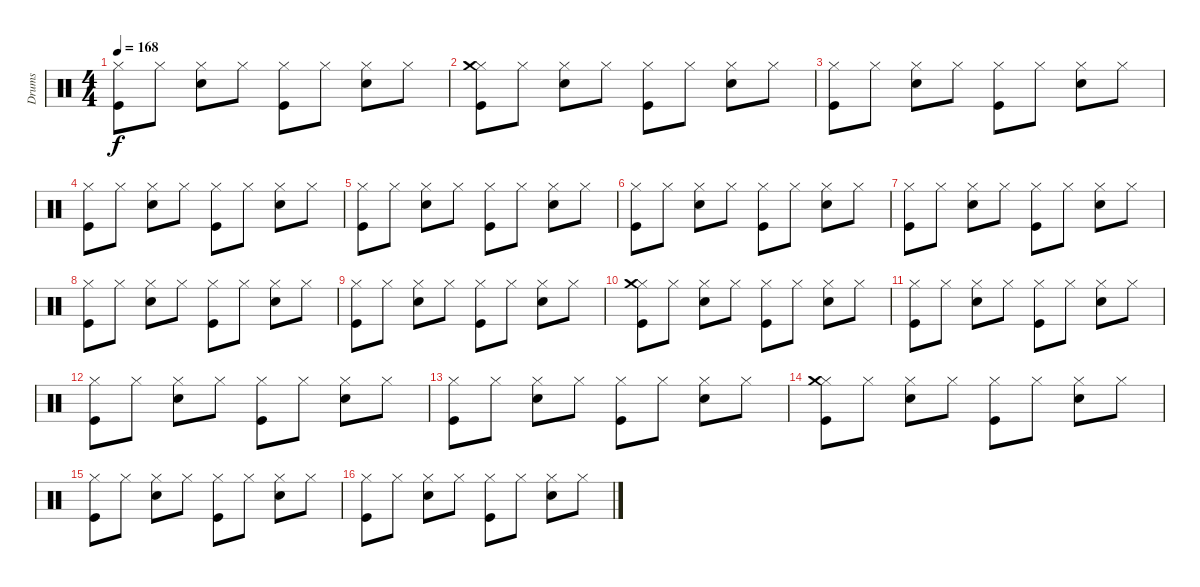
\track ("Drums" "Drums") {instrument percussion}
\staff {score}
\articulation defaults
\ts (4 4)
\tempo 168
\clef neutral
\ks c
("Kick (hit)" "Hi-Hat (closed)").8{dy f} "Hi-Hat (closed)".8 ("Snare (hit) 2" "Hi-Hat (closed)").8 "Hi-Hat (closed)".8 ("Kick (hit)" "Hi-Hat (closed)").8 "Hi-Hat (closed)".8 ("Snare (hit) 2" "Hi-Hat (closed)").8 "Hi-Hat (closed)".8 |
("Kick (hit)" "Hi-Hat (closed)" "Crash medium (hit)").8 "Hi-Hat (closed)".8 ("Snare (hit) 2" "Hi-Hat (closed)").8 "Hi-Hat (closed)".8 ("Kick (hit)" "Hi-Hat (closed)").8 "Hi-Hat (closed)".8 ("Snare (hit) 2" "Hi-Hat (closed)").8 "Hi-Hat (closed)".8 |
("Kick (hit)" "Hi-Hat (closed)").8 "Hi-Hat (closed)".8 ("Snare (hit) 2" "Hi-Hat (closed)").8 "Hi-Hat (closed)".8 ("Kick (hit)" "Hi-Hat (closed)").8 "Hi-Hat (closed)".8 ("Snare (hit) 2" "Hi-Hat (closed)").8 "Hi-Hat (closed)".8 |
("Kick (hit)" "Hi-Hat (closed)").8 "Hi-Hat (closed)".8 ("Snare (hit) 2" "Hi-Hat (closed)").8 "Hi-Hat (closed)".8 ("Kick (hit)" "Hi-Hat (closed)").8 "Hi-Hat (closed)".8 ("Snare (hit) 2" "Hi-Hat (closed)").8 "Hi-Hat (closed)".8 |
("Kick (hit)" "Hi-Hat (closed)").8 "Hi-Hat (closed)".8 ("Snare (hit) 2" "Hi-Hat (closed)").8 "Hi-Hat (closed)".8 ("Kick (hit)" "Hi-Hat (closed)").8 "Hi-Hat (closed)".8 ("Snare (hit) 2" "Hi-Hat (closed)").8 "Hi-Hat (closed)".8 |
("Kick (hit)" "Hi-Hat (closed)").8 "Hi-Hat (closed)".8 ("Snare (hit) 2" "Hi-Hat (closed)").8 "Hi-Hat (closed)".8 ("Kick (hit)" "Hi-Hat (closed)").8 "Hi-Hat (closed)".8 ("Snare (hit) 2" "Hi-Hat (closed)").8 "Hi-Hat (closed)".8 |
("Kick (hit)" "Hi-Hat (closed)").8 "Hi-Hat (closed)".8 ("Snare (hit) 2" "Hi-Hat (closed)").8 "Hi-Hat (closed)".8 ("Kick (hit)" "Hi-Hat (closed)").8 "Hi-Hat (closed)".8 ("Snare (hit) 2" "Hi-Hat (closed)").8 "Hi-Hat (closed)".8 |
("Kick (hit)" "Hi-Hat (closed)").8 "Hi-Hat (closed)".8 ("Snare (hit) 2" "Hi-Hat (closed)").8 "Hi-Hat (closed)".8 ("Kick (hit)" "Hi-Hat (closed)").8 "Hi-Hat (closed)".8 ("Snare (hit) 2" "Hi-Hat (closed)").8 "Hi-Hat (closed)".8 |
("Kick (hit)" "Hi-Hat (closed)").8 "Hi-Hat (closed)".8 ("Snare (hit) 2" "Hi-Hat (closed)").8 "Hi-Hat (closed)".8 ("Kick (hit)" "Hi-Hat (closed)").8 "Hi-Hat (closed)".8 ("Snare (hit) 2" "Hi-Hat (closed)").8 "Hi-Hat (closed)".8 |
("Kick (hit)" "Hi-Hat (closed)" "Crash medium (hit)").8 "Hi-Hat (closed)".8 ("Snare (hit) 2" "Hi-Hat (closed)").8 "Hi-Hat (closed)".8 ("Kick (hit)" "Hi-Hat (closed)").8 "Hi-Hat (closed)".8 ("Snare (hit) 2" "Hi-Hat (closed)").8 "Hi-Hat (closed)".8 |
("Kick (hit)" "Hi-Hat (closed)").8 "Hi-Hat (closed)".8 ("Snare (hit) 2" "Hi-Hat (closed)").8 "Hi-Hat (closed)".8 ("Kick (hit)" "Hi-Hat (closed)").8 "Hi-Hat (closed)".8 ("Snare (hit) 2" "Hi-Hat (closed)").8 "Hi-Hat (closed)".8 |
("Kick (hit)" "Hi-Hat (closed)").8 "Hi-Hat (closed)".8 ("Snare (hit) 2" "Hi-Hat (closed)").8 "Hi-Hat (closed)".8 ("Kick (hit)" "Hi-Hat (closed)").8 "Hi-Hat (closed)".8 ("Snare (hit) 2" "Hi-Hat (closed)").8 "Hi-Hat (closed)".8 |
("Kick (hit)" "Hi-Hat (closed)").8 "Hi-Hat (closed)".8 ("Snare (hit) 2" "Hi-Hat (closed)").8 "Hi-Hat (closed)".8 ("Kick (hit)" "Hi-Hat (closed)").8 "Hi-Hat (closed)".8 ("Snare (hit) 2" "Hi-Hat (closed)").8 "Hi-Hat (closed)".8 |
("Kick (hit)" "Hi-Hat (closed)" "Crash medium (hit)").8 "Hi-Hat (closed)".8 ("Snare (hit) 2" "Hi-Hat (closed)").8 "Hi-Hat (closed)".8 ("Kick (hit)" "Hi-Hat (closed)").8 "Hi-Hat (closed)".8 ("Snare (hit) 2" "Hi-Hat (closed)").8 "Hi-Hat (closed)".8 |
("Kick (hit)" "Hi-Hat (closed)").8 "Hi-Hat (closed)".8 ("Snare (hit) 2" "Hi-Hat (closed)").8 "Hi-Hat (closed)".8 ("Kick (hit)" "Hi-Hat (closed)").8 "Hi-Hat (closed)".8 ("Snare (hit) 2" "Hi-Hat (closed)").8 "Hi-Hat (closed)".8 |
("Kick (hit)" "Hi-Hat (closed)").8 "Hi-Hat (closed)".8 ("Snare (hit) 2" "Hi-Hat (closed)").8 "Hi-Hat (closed)".8 ("Kick (hit)" "Hi-Hat (closed)").8 "Hi-Hat (closed)".8 ("Snare (hit) 2" "Hi-Hat (closed)").8 "Hi-Hat (closed)".8
